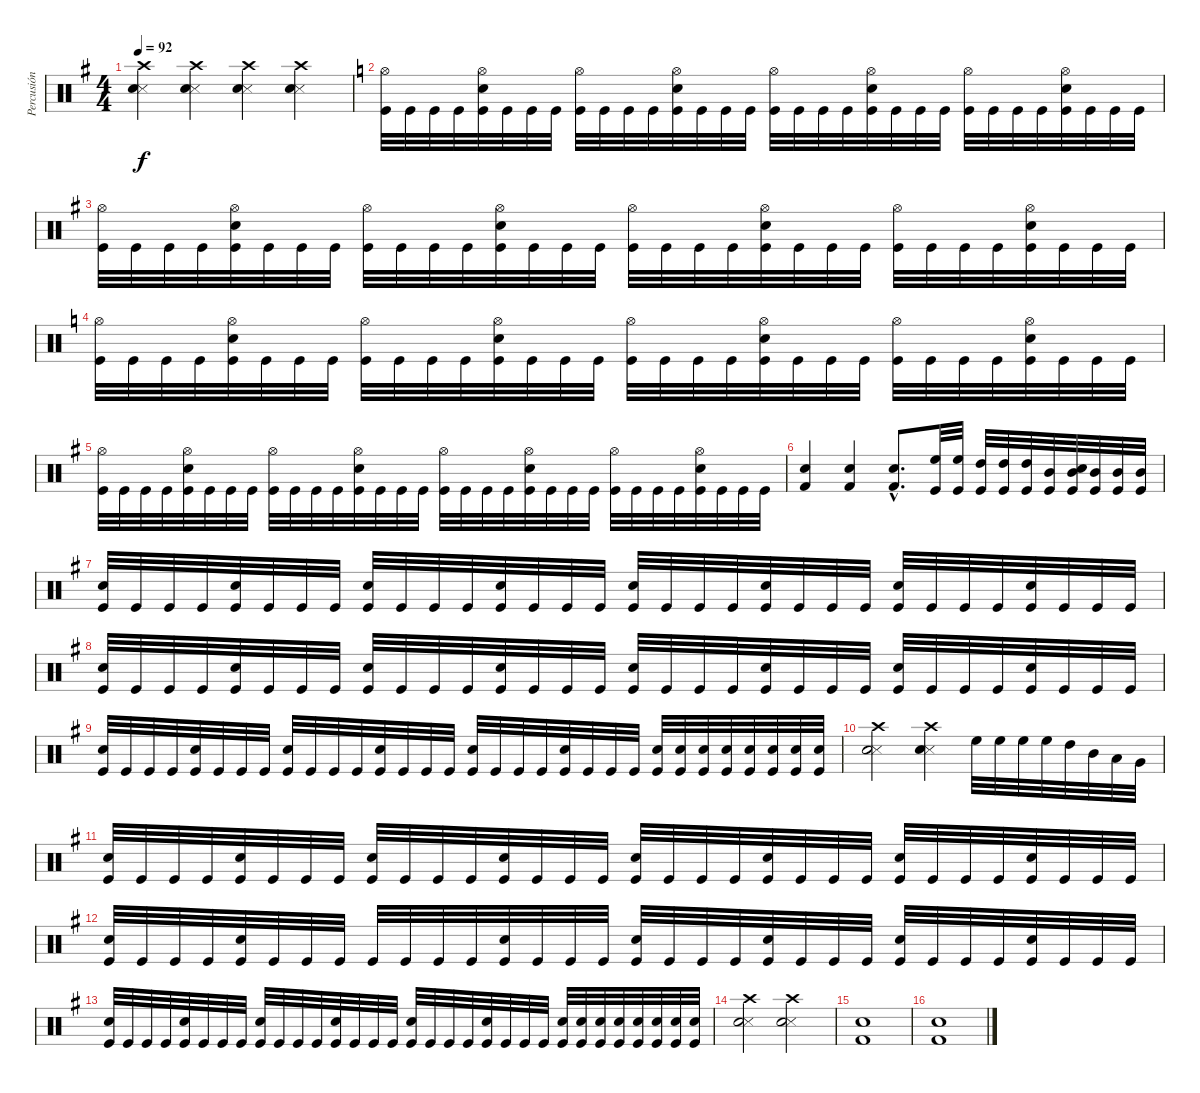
\track ("Percusión" "Percusión") {instrument percussion}
\staff {score}
\articulation defaults
\ts (4 4)
\tempo 92
\clef neutral
\ks g
("Snare (side stick) 3" "Snare (hit) 2" "Crash high (hit)").4{dy f} ("Snare (side stick) 3" "Snare (hit) 2" "Crash high (hit)").4 ("Snare (side stick) 3" "Snare (hit) 2" "Crash high (hit)").4 ("Snare (side stick) 3" "Snare (hit) 2" "Crash high (hit)").4 |
\ks c
("Hi-Hat (open)" "Kick (hit)").32 "Kick (hit)".32 "Kick (hit)".32 "Kick (hit)".32 ("Snare (hit) 2" "Hi-Hat (open)" "Kick (hit)").32 "Kick (hit)".32 "Kick (hit)".32 "Kick (hit)".32 ("Hi-Hat (open)" "Kick (hit)").32 "Kick (hit)".32 "Kick (hit)".32 "Kick (hit)".32 ("Snare (hit) 2" "Hi-Hat (open)" "Kick (hit)").32 "Kick (hit)".32 "Kick (hit)".32 "Kick (hit)".32 ("Hi-Hat (open)" "Kick (hit)").32 "Kick (hit)".32 "Kick (hit)".32 "Kick (hit)".32 ("Snare (hit) 2" "Hi-Hat (open)" "Kick (hit)").32 "Kick (hit)".32 "Kick (hit)".32 "Kick (hit)".32 ("Hi-Hat (open)" "Kick (hit)").32 "Kick (hit)".32 "Kick (hit)".32 "Kick (hit)".32 ("Snare (hit) 2" "Hi-Hat (open)" "Kick (hit)").32 "Kick (hit)".32 "Kick (hit)".32 "Kick (hit)".32 |
\ks g
("Hi-Hat (open)" "Kick (hit)").32 "Kick (hit)".32 "Kick (hit)".32 "Kick (hit)".32 ("Snare (hit) 2" "Hi-Hat (open)" "Kick (hit)").32 "Kick (hit)".32 "Kick (hit)".32 "Kick (hit)".32 ("Hi-Hat (open)" "Kick (hit)").32 "Kick (hit)".32 "Kick (hit)".32 "Kick (hit)".32 ("Snare (hit) 2" "Hi-Hat (open)" "Kick (hit)").32 "Kick (hit)".32 "Kick (hit)".32 "Kick (hit)".32 ("Hi-Hat (open)" "Kick (hit)").32 "Kick (hit)".32 "Kick (hit)".32 "Kick (hit)".32 ("Snare (hit) 2" "Hi-Hat (open)" "Kick (hit)").32 "Kick (hit)".32 "Kick (hit)".32 "Kick (hit)".32 ("Hi-Hat (open)" "Kick (hit)").32 "Kick (hit)".32 "Kick (hit)".32 "Kick (hit)".32 ("Snare (hit) 2" "Hi-Hat (open)" "Kick (hit)").32 "Kick (hit)".32 "Kick (hit)".32 "Kick (hit)".32 |
\ks c
("Hi-Hat (open)" "Kick (hit)").32 "Kick (hit)".32 "Kick (hit)".32 "Kick (hit)".32 ("Snare (hit) 2" "Hi-Hat (open)" "Kick (hit)").32 "Kick (hit)".32 "Kick (hit)".32 "Kick (hit)".32 ("Hi-Hat (open)" "Kick (hit)").32 "Kick (hit)".32 "Kick (hit)".32 "Kick (hit)".32 ("Snare (hit) 2" "Hi-Hat (open)" "Kick (hit)").32 "Kick (hit)".32 "Kick (hit)".32 "Kick (hit)".32 ("Hi-Hat (open)" "Kick (hit)").32 "Kick (hit)".32 "Kick (hit)".32 "Kick (hit)".32 ("Snare (hit) 2" "Hi-Hat (open)" "Kick (hit)").32 "Kick (hit)".32 "Kick (hit)".32 "Kick (hit)".32 ("Hi-Hat (open)" "Kick (hit)").32 "Kick (hit)".32 "Kick (hit)".32 "Kick (hit)".32 ("Snare (hit) 2" "Hi-Hat (open)" "Kick (hit)").32 "Kick (hit)".32 "Kick (hit)".32 "Kick (hit)".32 |
\ks g
("Hi-Hat (open)" "Kick (hit)").32 "Kick (hit)".32 "Kick (hit)".32 "Kick (hit)".32 ("Snare (hit) 2" "Hi-Hat (open)" "Kick (hit)").32 "Kick (hit)".32 "Kick (hit)".32 "Kick (hit)".32 ("Hi-Hat (open)" "Kick (hit)").32 "Kick (hit)".32 "Kick (hit)".32 "Kick (hit)".32 ("Snare (hit) 2" "Hi-Hat (open)" "Kick (hit)").32 "Kick (hit)".32 "Kick (hit)".32 "Kick (hit)".32 ("Hi-Hat (open)" "Kick (hit)").32 "Kick (hit)".32 "Kick (hit)".32 "Kick (hit)".32 ("Snare (hit) 2" "Hi-Hat (open)" "Kick (hit)").32 "Kick (hit)".32 "Kick (hit)".32 "Kick (hit)".32 ("Hi-Hat (open)" "Kick (hit)").32 "Kick (hit)".32 "Kick (hit)".32 "Kick (hit)".32 ("Snare (hit) 2" "Hi-Hat (open)" "Kick (hit)").32 "Kick (hit)".32 "Kick (hit)".32 "Kick (hit)".32 |
("Snare (hit) 2" "Kick (hit) 2").4 ("Snare (hit) 2" "Kick (hit) 2").4 ("Snare (hit) 2"{hac} "Kick (hit) 2"{hac}).8{d} ("High Floor Tom (hit)" "Kick (hit)").32 ("High Floor Tom (hit)" "Kick (hit)").32 ("High Tom (hit)" "Kick (hit)").32 ("High Tom (hit)" "Kick (hit)").32 ("High Tom (hit)" "Kick (hit)").32 ("Mid Tom (hit)" "Kick (hit)").32 ("Mid Tom (hit)" "Snare (hit) 2" "Kick (hit)").32 ("Mid Tom (hit)" "Kick (hit)").32 ("Mid Tom (hit)" "Kick (hit)").32 ("Mid Tom (hit)" "Kick (hit)").32 |
("Snare (hit) 2" "Kick (hit)").32 "Kick (hit)".32 "Kick (hit)".32 "Kick (hit)".32 ("Snare (hit) 2" "Kick (hit)").32 "Kick (hit)".32 "Kick (hit)".32 "Kick (hit)".32 ("Snare (hit) 2" "Kick (hit)").32 "Kick (hit)".32 "Kick (hit)".32 "Kick (hit)".32 ("Snare (hit) 2" "Kick (hit)").32 "Kick (hit)".32 "Kick (hit)".32 "Kick (hit)".32 ("Snare (hit) 2" "Kick (hit)").32 "Kick (hit)".32 "Kick (hit)".32 "Kick (hit)".32 ("Snare (hit) 2" "Kick (hit)").32 "Kick (hit)".32 "Kick (hit)".32 "Kick (hit)".32 ("Snare (hit) 2" "Kick (hit)").32 "Kick (hit)".32 "Kick (hit)".32 "Kick (hit)".32 ("Snare (hit) 2" "Kick (hit)").32 "Kick (hit)".32 "Kick (hit)".32 "Kick (hit)".32 |
("Snare (hit) 2" "Kick (hit)").32 "Kick (hit)".32 "Kick (hit)".32 "Kick (hit)".32 ("Snare (hit) 2" "Kick (hit)").32 "Kick (hit)".32 "Kick (hit)".32 "Kick (hit)".32 ("Snare (hit) 2" "Kick (hit)").32 "Kick (hit)".32 "Kick (hit)".32 "Kick (hit)".32 ("Snare (hit) 2" "Kick (hit)").32 "Kick (hit)".32 "Kick (hit)".32 "Kick (hit)".32 ("Snare (hit) 2" "Kick (hit)").32 "Kick (hit)".32 "Kick (hit)".32 "Kick (hit)".32 ("Snare (hit) 2" "Kick (hit)").32 "Kick (hit)".32 "Kick (hit)".32 "Kick (hit)".32 ("Snare (hit) 2" "Kick (hit)").32 "Kick (hit)".32 "Kick (hit)".32 "Kick (hit)".32 ("Snare (hit) 2" "Kick (hit)").32 "Kick (hit)".32 "Kick (hit)".32 "Kick (hit)".32 |
("Snare (hit) 2" "Kick (hit)").32 "Kick (hit)".32 "Kick (hit)".32 "Kick (hit)".32 ("Snare (hit) 2" "Kick (hit)").32 "Kick (hit)".32 "Kick (hit)".32 "Kick (hit)".32 ("Snare (hit) 2" "Kick (hit)").32 "Kick (hit)".32 "Kick (hit)".32 "Kick (hit)".32 ("Snare (hit) 2" "Kick (hit)").32 "Kick (hit)".32 "Kick (hit)".32 "Kick (hit)".32 ("Snare (hit) 2" "Kick (hit)").32 "Kick (hit)".32 "Kick (hit)".32 "Kick (hit)".32 ("Snare (hit) 2" "Kick (hit)").32 "Kick (hit)".32 "Kick (hit)".32 "Kick (hit)".32 ("Snare (hit) 2" "Kick (hit)").32 ("Snare (hit) 2" "Kick (hit)").32 ("Snare (hit) 2" "Kick (hit)").32 ("Snare (hit) 2" "Kick (hit)").32 ("Snare (hit) 2" "Kick (hit)").32 ("Snare (hit) 2" "Kick (hit)").32 ("Snare (hit) 2" "Kick (hit)").32 ("Snare (hit) 2" "Kick (hit)").32 |
("Snare (side stick) 3" "Snare (hit) 2" "Crash high (hit)").2 ("Snare (side stick) 3" "Snare (hit) 2" "Crash high (hit)").4 "High Floor Tom (hit)".32 "High Floor Tom (hit)".32 "High Floor Tom (hit)".32 "High Floor Tom (hit)".32 "High Tom (hit)".32 "Mid Tom (hit)".32 "Low Tom (hit)".32 "Very Low Tom (hit)".32 |
("Snare (hit) 2" "Kick (hit)").32 "Kick (hit)".32 "Kick (hit)".32 "Kick (hit)".32 ("Snare (hit) 2" "Kick (hit)").32 "Kick (hit)".32 "Kick (hit)".32 "Kick (hit)".32 ("Snare (hit) 2" "Kick (hit)").32 "Kick (hit)".32 "Kick (hit)".32 "Kick (hit)".32 ("Snare (hit) 2" "Kick (hit)").32 "Kick (hit)".32 "Kick (hit)".32 "Kick (hit)".32 ("Snare (hit) 2" "Kick (hit)").32 "Kick (hit)".32 "Kick (hit)".32 "Kick (hit)".32 ("Snare (hit) 2" "Kick (hit)").32 "Kick (hit)".32 "Kick (hit)".32 "Kick (hit)".32 ("Snare (hit) 2" "Kick (hit)").32 "Kick (hit)".32 "Kick (hit)".32 "Kick (hit)".32 ("Snare (hit) 2" "Kick (hit)").32 "Kick (hit)".32 "Kick (hit)".32 "Kick (hit)".32 |
("Snare (hit) 2" "Kick (hit)").32 "Kick (hit)".32 "Kick (hit)".32 "Kick (hit)".32 ("Snare (hit) 2" "Kick (hit)").32 "Kick (hit)".32 "Kick (hit)".32 "Kick (hit)".32 "Kick (hit)".32 "Kick (hit)".32 "Kick (hit)".32 "Kick (hit)".32 ("Snare (hit) 2" "Kick (hit)").32 "Kick (hit)".32 "Kick (hit)".32 "Kick (hit)".32 ("Snare (hit) 2" "Kick (hit)").32 "Kick (hit)".32 "Kick (hit)".32 "Kick (hit)".32 ("Snare (hit) 2" "Kick (hit)").32 "Kick (hit)".32 "Kick (hit)".32 "Kick (hit)".32 ("Snare (hit) 2" "Kick (hit)").32 "Kick (hit)".32 "Kick (hit)".32 "Kick (hit)".32 ("Snare (hit) 2" "Kick (hit)").32 "Kick (hit)".32 "Kick (hit)".32 "Kick (hit)".32 |
("Snare (hit) 2" "Kick (hit)").32 "Kick (hit)".32 "Kick (hit)".32 "Kick (hit)".32 ("Snare (hit) 2" "Kick (hit)").32 "Kick (hit)".32 "Kick (hit)".32 "Kick (hit)".32 ("Snare (hit) 2" "Kick (hit)").32 "Kick (hit)".32 "Kick (hit)".32 "Kick (hit)".32 ("Snare (hit) 2" "Kick (hit)").32 "Kick (hit)".32 "Kick (hit)".32 "Kick (hit)".32 ("Snare (hit) 2" "Kick (hit)").32 "Kick (hit)".32 "Kick (hit)".32 "Kick (hit)".32 ("Snare (hit) 2" "Kick (hit)").32 "Kick (hit)".32 "Kick (hit)".32 "Kick (hit)".32 ("Snare (hit) 2" "Kick (hit)").32 ("Snare (hit) 2" "Kick (hit)").32 ("Snare (hit) 2" "Kick (hit)").32 ("Snare (hit) 2" "Kick (hit)").32 ("Snare (hit) 2" "Kick (hit)").32 ("Snare (hit) 2" "Kick (hit)").32 ("Snare (hit) 2" "Kick (hit)").32 ("Snare (hit) 2" "Kick (hit)").32 |
("Snare (side stick) 3" "Snare (hit) 2" "Crash high (hit)").2 ("Snare (side stick) 3" "Snare (hit) 2" "Crash high (hit)").2 |
("Kick (hit) 2" "Snare (hit) 2").1 |
("Snare (hit) 2" "Kick (hit) 2").1
